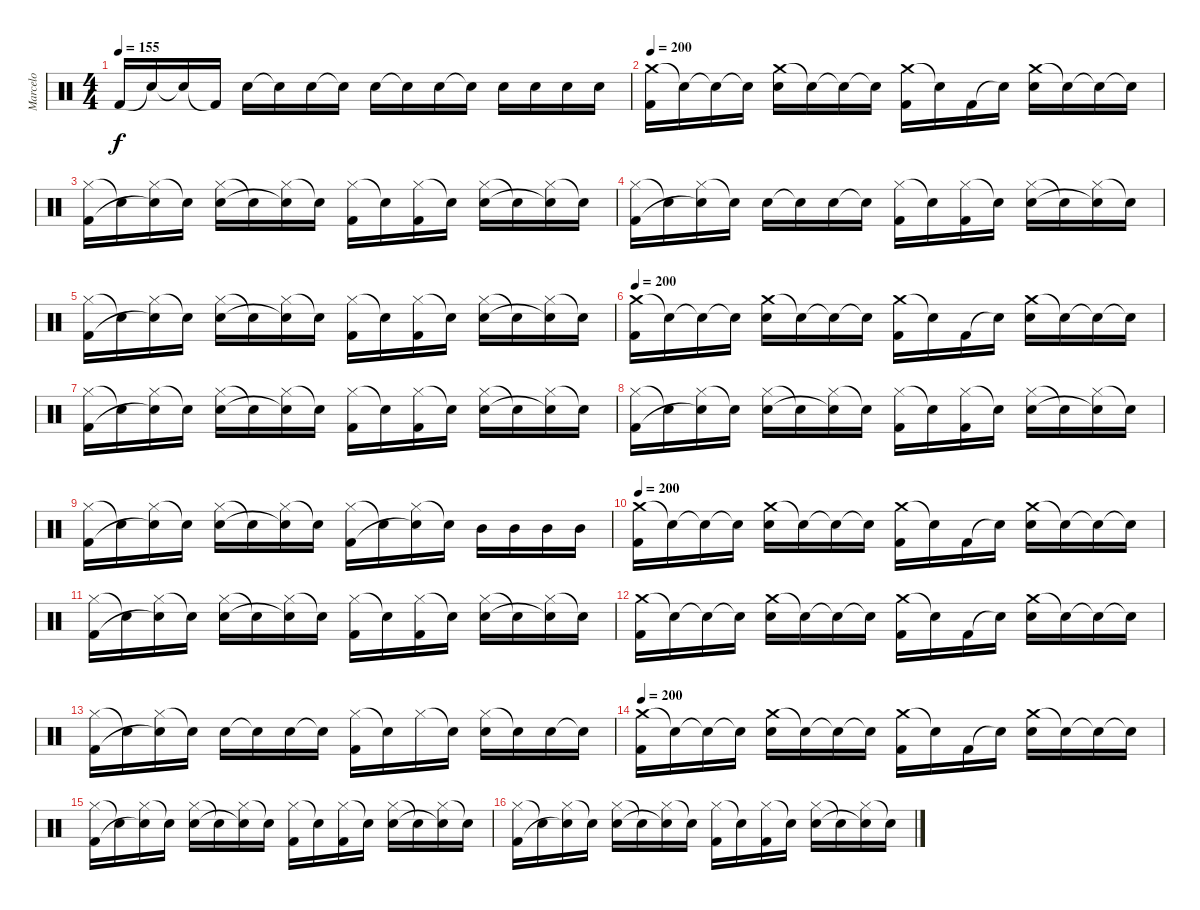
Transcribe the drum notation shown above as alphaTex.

\track ("Marcelo" "Marcelo") {instrument percussion}
\staff {score}
\articulation defaults
\ts (4 4)
\tempo 155
\clef neutral
\ks c "Kick (hit) 2".16{dy f} "Snare (hit) 2"{t}.16 "Snare (hit) 2"{t}.16 "Kick (hit) 2"{t}.16 "Snare (hit) 2".16 "Snare (hit)"{t}.16 "Snare (hit) 2".16 "Snare (hit)"{t}.16 "Snare (hit) 2".16 "Snare (hit)"{t}.16 "Snare (hit) 2".16 "Snare (hit)"{t}.16 "Snare (hit) 2".16 "Snare (hit) 2".16 "Snare (hit) 2".16 "Snare (hit) 2".16
|
\tempo 200
("Crash medium (hit)" "Kick (hit) 2").16 "Snare (hit)"{t}.16 "Snare (hit)"{t}.16 "Snare (hit) 2"{t}.16 ("Crash medium (hit)" "Snare (hit) 2").16 "Snare (hit)"{t}.16 "Snare (hit)"{t}.16 "Snare (hit)"{t}.16 ("Crash medium (hit)" "Kick (hit) 2").16 "Snare (hit)"{t}.16 "Kick (hit) 2".16 "Snare (hit) 2"{t}.16 ("Crash medium (hit)" "Snare (hit) 2").16 "Snare (hit)"{t}.16 "Snare (hit)"{t}.16 "Snare (hit)"{t}.16 |
("Hi-Hat (closed)" "Kick (hit) 2").16 "Snare (hit)"{t}.16 ("Hi-Hat (closed)" "Snare (hit)"{t}).16 "Snare (hit)"{t}.16 ("Hi-Hat (closed)" "Snare (hit) 2").16 "Snare (hit)"{t}.16 ("Hi-Hat (closed)" "Snare (hit)"{t}).16 "Snare (hit)"{t}.16 ("Hi-Hat (closed)" "Kick (hit) 2").16 "Snare (hit)"{t}.16 ("Hi-Hat (closed)" "Kick (hit) 2").16 "Snare (hit)"{t}.16 ("Hi-Hat (closed)" "Snare (hit) 2").16 "Snare (hit)"{t}.16 ("Hi-Hat (closed)" "Snare (hit)"{t}).16 "Snare (hit)"{t}.16 |
("Hi-Hat (closed)" "Kick (hit) 2").16 "Snare (hit)"{t}.16 ("Hi-Hat (closed)" "Snare (hit)"{t}).16 "Snare (hit)"{t}.16 "Snare (hit) 2".16 "Snare (hit)"{t}.16 "Snare (hit) 2".16 "Snare (hit)"{t}.16 ("Hi-Hat (closed)" "Kick (hit) 2").16 "Snare (hit)"{t}.16 ("Hi-Hat (closed)" "Kick (hit) 2").16 "Snare (hit)"{t}.16 ("Hi-Hat (closed)" "Snare (hit) 2").16 "Snare (hit)"{t}.16 ("Hi-Hat (closed)" "Snare (hit)"{t}).16 "Snare (hit)"{t}.16 |
("Hi-Hat (closed)" "Kick (hit) 2").16 "Snare (hit)"{t}.16 ("Hi-Hat (closed)" "Snare (hit)"{t}).16 "Snare (hit) 2"{t}.16 ("Hi-Hat (closed)" "Snare (hit) 2").16 "Snare (hit)"{t}.16 ("Hi-Hat (closed)" "Snare (hit)"{t}).16 "Snare (hit)"{t}.16 ("Hi-Hat (closed)" "Kick (hit) 2").16 "Snare (hit)"{t}.16 ("Hi-Hat (closed)" "Kick (hit) 2").16 "Snare (hit) 2"{t}.16 ("Hi-Hat (closed)" "Snare (hit) 2").16 "Snare (hit)"{t}.16 ("Hi-Hat (closed)" "Snare (hit)"{t}).16 "Snare (hit)"{t}.16 |
\tempo 200
("Crash medium (hit)" "Kick (hit) 2").16 "Snare (hit)"{t}.16 "Snare (hit)"{t}.16 "Snare (hit) 2"{t}.16 ("Crash medium (hit)" "Snare (hit) 2").16 "Snare (hit)"{t}.16 "Snare (hit)"{t}.16 "Snare (hit)"{t}.16 ("Crash medium (hit)" "Kick (hit) 2").16 "Snare (hit)"{t}.16 "Kick (hit) 2".16 "Snare (hit) 2"{t}.16 ("Crash medium (hit)" "Snare (hit) 2").16 "Snare (hit)"{t}.16 "Snare (hit)"{t}.16 "Snare (hit)"{t}.16 |
("Hi-Hat (closed)" "Kick (hit) 2").16 "Snare (hit)"{t}.16 ("Hi-Hat (closed)" "Snare (hit)"{t}).16 "Snare (hit) 2"{t}.16 ("Hi-Hat (closed)" "Snare (hit) 2").16 "Snare (hit)"{t}.16 ("Hi-Hat (closed)" "Snare (hit)"{t}).16 "Snare (hit)"{t}.16 ("Hi-Hat (closed)" "Kick (hit) 2").16 "Snare (hit)"{t}.16 ("Hi-Hat (closed)" "Kick (hit) 2").16 "Snare (hit) 2"{t}.16 ("Hi-Hat (closed)" "Snare (hit) 2").16 "Snare (hit)"{t}.16 ("Hi-Hat (closed)" "Snare (hit)"{t}).16 "Snare (hit)"{t}.16 |
("Hi-Hat (closed)" "Kick (hit) 2").16 "Snare (hit)"{t}.16 ("Hi-Hat (closed)" "Snare (hit)"{t}).16 "Snare (hit) 2"{t}.16 ("Hi-Hat (closed)" "Snare (hit) 2").16 "Snare (hit)"{t}.16 ("Hi-Hat (closed)" "Snare (hit)"{t}).16 "Snare (hit)"{t}.16 ("Hi-Hat (closed)" "Kick (hit) 2").16 "Snare (hit)"{t}.16 ("Hi-Hat (closed)" "Kick (hit) 2").16 "Snare (hit) 2"{t}.16 ("Hi-Hat (closed)" "Snare (hit) 2").16 "Snare (hit)"{t}.16 ("Hi-Hat (closed)" "Snare (hit)"{t}).16 "Snare (hit)"{t}.16 |
("Hi-Hat (closed)" "Kick (hit) 2").16 "Snare (hit)"{t}.16 ("Hi-Hat (closed)" "Snare (hit)"{t}).16 "Snare (hit)"{t}.16 ("Hi-Hat (closed)" "Snare (hit) 2").16 "Snare (hit)"{t}.16 ("Hi-Hat (closed)" "Snare (hit)"{t}).16 "Snare (hit)"{t}.16 ("Hi-Hat (closed)" "Kick (hit) 2").16 "Snare (hit)"{t}.16 ("Hi-Hat (closed)" "Snare (hit)"{t}).16 "Snare (hit)"{t}.16 "Mid Tom (hit)".16 "Mid Tom (hit)".16 "Mid Tom (hit)".16 "Mid Tom (hit)".16 |
\tempo 200
("Crash medium (hit)" "Kick (hit) 2").16 "Snare (hit)"{t}.16 "Snare (hit)"{t}.16 "Snare (hit) 2"{t}.16 ("Crash medium (hit)" "Snare (hit) 2").16 "Snare (hit)"{t}.16 "Snare (hit)"{t}.16 "Snare (hit)"{t}.16 ("Crash medium (hit)" "Kick (hit) 2").16 "Snare (hit)"{t}.16 "Kick (hit) 2".16 "Snare (hit) 2"{t}.16 ("Crash medium (hit)" "Snare (hit) 2").16 "Snare (hit)"{t}.16 "Snare (hit)"{t}.16 "Snare (hit)"{t}.16 |
("Hi-Hat (closed)" "Kick (hit) 2").16 "Snare (hit)"{t}.16 ("Hi-Hat (closed)" "Snare (hit)"{t}).16 "Snare (hit) 2"{t}.16 ("Hi-Hat (closed)" "Snare (hit) 2").16 "Snare (hit)"{t}.16 ("Hi-Hat (closed)" "Snare (hit)"{t}).16 "Snare (hit)"{t}.16 ("Hi-Hat (closed)" "Kick (hit) 2").16 "Snare (hit)"{t}.16 ("Hi-Hat (closed)" "Kick (hit) 2").16 "Snare (hit) 2"{t}.16 ("Hi-Hat (closed)" "Snare (hit) 2").16 "Snare (hit)"{t}.16 ("Hi-Hat (closed)" "Snare (hit)"{t}).16 "Snare (hit)"{t}.16 |
("Crash medium (hit)" "Kick (hit) 2").16 "Snare (hit)"{t}.16 "Snare (hit)"{t}.16 "Snare (hit) 2"{t}.16 ("Crash medium (hit)" "Snare (hit) 2").16 "Snare (hit)"{t}.16 "Snare (hit)"{t}.16 "Snare (hit)"{t}.16 ("Crash medium (hit)" "Kick (hit) 2").16 "Snare (hit)"{t}.16 "Kick (hit) 2".16 "Snare (hit) 2"{t}.16 ("Crash medium (hit)" "Snare (hit) 2").16 "Snare (hit)"{t}.16 "Snare (hit)"{t}.16 "Snare (hit)"{t}.16 |
("Hi-Hat (closed)" "Kick (hit) 2").16 "Snare (hit)"{t}.16 ("Hi-Hat (closed)" "Snare (hit)"{t}).16 "Snare (hit)"{t}.16 "Snare (hit) 2".16 "Snare (hit)"{t}.16 "Snare (hit) 2".16 "Snare (hit)"{t}.16 ("Hi-Hat (closed)" "Kick (hit) 2").16 "Snare (hit)"{t}.16 "Hi-Hat (closed)".16 "Snare (hit)"{t}.16 ("Hi-Hat (closed)" "Snare (hit) 2").16 "Snare (hit)"{t}.16 "Snare (hit) 2".16 "Snare (hit)"{t}.16 |
\tempo 200
("Crash medium (hit)" "Kick (hit) 2").16 "Snare (hit)"{t}.16 "Snare (hit)"{t}.16 "Snare (hit) 2"{t}.16 ("Crash medium (hit)" "Snare (hit) 2").16 "Snare (hit)"{t}.16 "Snare (hit)"{t}.16 "Snare (hit)"{t}.16 ("Crash medium (hit)" "Kick (hit) 2").16 "Snare (hit)"{t}.16 "Kick (hit) 2".16 "Snare (hit) 2"{t}.16 ("Crash medium (hit)" "Snare (hit) 2").16 "Snare (hit)"{t}.16 "Snare (hit)"{t}.16 "Snare (hit)"{t}.16 |
("Hi-Hat (closed)" "Kick (hit) 2").16 "Snare (hit)"{t}.16 ("Hi-Hat (closed)" "Snare (hit)"{t}).16 "Snare (hit) 2"{t}.16 ("Hi-Hat (closed)" "Snare (hit) 2").16 "Snare (hit)"{t}.16 ("Hi-Hat (closed)" "Snare (hit)"{t}).16 "Snare (hit)"{t}.16 ("Hi-Hat (closed)" "Kick (hit) 2").16 "Snare (hit)"{t}.16 ("Hi-Hat (closed)" "Kick (hit) 2").16 "Snare (hit) 2"{t}.16 ("Hi-Hat (closed)" "Snare (hit) 2").16 "Snare (hit)"{t}.16 ("Hi-Hat (closed)" "Snare (hit)"{t}).16 "Snare (hit)"{t}.16 |
("Hi-Hat (closed)" "Kick (hit) 2").16 "Snare (hit)"{t}.16 ("Hi-Hat (closed)" "Snare (hit)"{t}).16 "Snare (hit) 2"{t}.16 ("Hi-Hat (closed)" "Snare (hit) 2").16 "Snare (hit)"{t}.16 ("Hi-Hat (closed)" "Snare (hit)"{t}).16 "Snare (hit)"{t}.16 ("Hi-Hat (closed)" "Kick (hit) 2").16 "Snare (hit)"{t}.16 ("Hi-Hat (closed)" "Kick (hit) 2").16 "Snare (hit) 2"{t}.16 ("Hi-Hat (closed)" "Snare (hit) 2").16 "Snare (hit)"{t}.16 ("Hi-Hat (closed)" "Snare (hit)"{t}).16 "Snare (hit)"{t}.16
